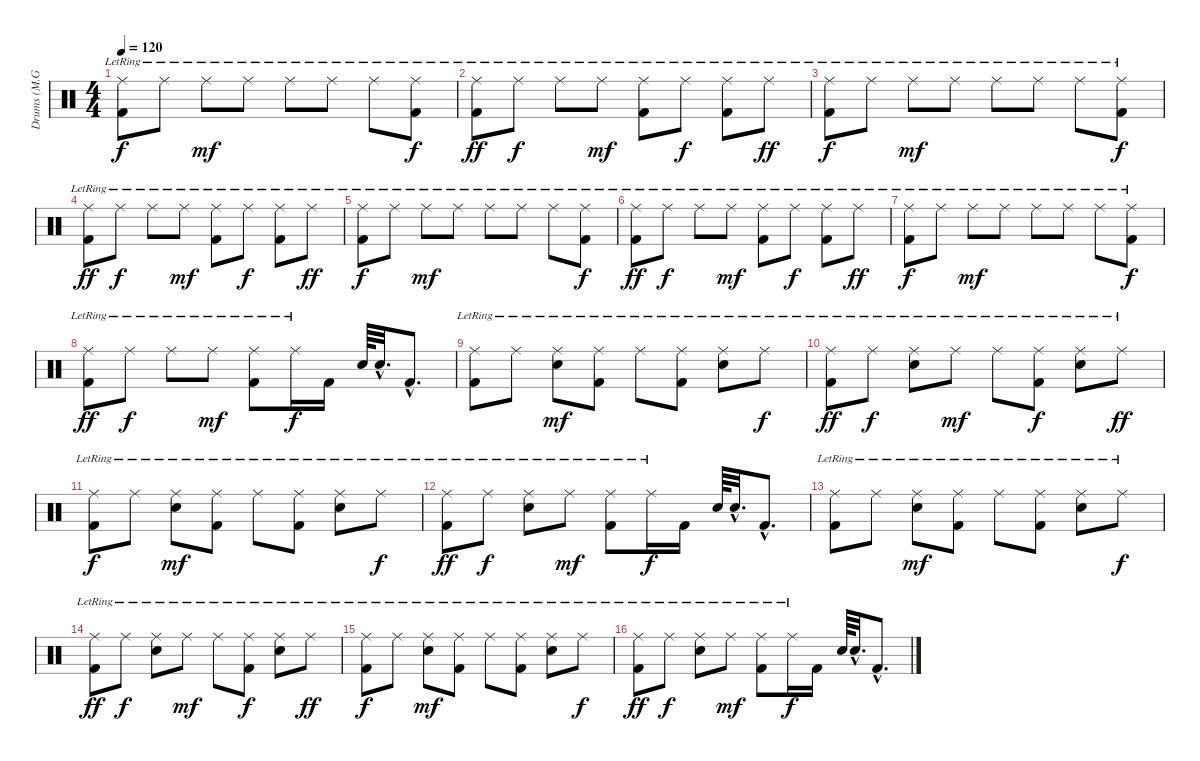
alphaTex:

\track ("Drums (M.Grosskopf)" "Drums (M.G") {instrument percussion}
\staff {score}
\articulation defaults
\ts (4 4)
\tempo 120
\clef neutral
\ks c
("Ride (middle)"{lr} "Kick (hit) 2").8{dy f} "Ride (middle)"{lr}.8 "Ride (middle)"{lr}.8{dy mf} "Ride (middle)"{lr}.8 "Ride (middle)"{lr}.8 "Ride (middle)"{lr}.8 "Ride (middle)"{lr}.8 ("Ride (middle)"{lr} "Kick (hit) 2").8{dy f} |
("Ride (middle)"{lr} "Kick (hit) 2").8{dy ff} "Ride (middle)"{lr}.8{dy f} "Ride (middle)"{lr}.8 "Ride (middle)"{lr}.8{dy mf} ("Ride (middle)"{lr} "Kick (hit) 2").8 "Ride (middle)"{lr}.8{dy f} ("Ride (middle)"{lr} "Kick (hit) 2").8 "Ride (middle)"{lr}.8{dy ff} |
("Ride (middle)"{lr} "Kick (hit) 2").8{dy f} "Ride (middle)"{lr}.8 "Ride (middle)"{lr}.8{dy mf} "Ride (middle)"{lr}.8 "Ride (middle)"{lr}.8 "Ride (middle)"{lr}.8 "Ride (middle)"{lr}.8 ("Ride (middle)"{lr} "Kick (hit) 2").8{dy f} |
("Ride (middle)"{lr} "Kick (hit) 2").8{dy ff} "Ride (middle)"{lr}.8{dy f} "Ride (middle)"{lr}.8 "Ride (middle)"{lr}.8{dy mf} ("Ride (middle)"{lr} "Kick (hit) 2").8 "Ride (middle)"{lr}.8{dy f} ("Ride (middle)"{lr} "Kick (hit) 2").8 "Ride (middle)"{lr}.8{dy ff} |
("Ride (middle)"{lr} "Kick (hit) 2").8{dy f} "Ride (middle)"{lr}.8 "Ride (middle)"{lr}.8{dy mf} "Ride (middle)"{lr}.8 "Ride (middle)"{lr}.8 "Ride (middle)"{lr}.8 "Ride (middle)"{lr}.8 ("Ride (middle)"{lr} "Kick (hit) 2").8{dy f} |
("Ride (middle)"{lr} "Kick (hit) 2").8{dy ff} "Ride (middle)"{lr}.8{dy f} "Ride (middle)"{lr}.8 "Ride (middle)"{lr}.8{dy mf} ("Ride (middle)"{lr} "Kick (hit) 2").8 "Ride (middle)"{lr}.8{dy f} ("Ride (middle)"{lr} "Kick (hit) 2").8 "Ride (middle)"{lr}.8{dy ff} |
("Ride (middle)"{lr} "Kick (hit) 2").8{dy f} "Ride (middle)"{lr}.8 "Ride (middle)"{lr}.8{dy mf} "Ride (middle)"{lr}.8 "Ride (middle)"{lr}.8 "Ride (middle)"{lr}.8 "Ride (middle)"{lr}.8 ("Ride (middle)"{lr} "Kick (hit) 2").8{dy f} |
("Ride (middle)"{lr} "Kick (hit) 2").8{dy ff} "Ride (middle)"{lr}.8{dy f} "Ride (middle)"{lr}.8 "Ride (middle)"{lr}.8{dy mf} ("Ride (middle)"{lr} "Kick (hit) 2").8 "Ride (middle)"{lr}.16{dy f} "Kick (hit) 2".16 "Electric Snare (hit)".64 "Electric Snare (hit)"{hac}.32{d} "Kick (hit) 2"{hac}.8{d} |
("Ride (middle)"{lr} "Kick (hit) 2").8 "Ride (middle)"{lr}.8 ("Ride (middle)"{lr} "Electric Snare (hit)").8{dy mf} ("Ride (middle)"{lr} "Kick (hit) 2").8 "Ride (middle)"{lr}.8 ("Ride (middle)"{lr} "Kick (hit) 2").8 ("Ride (middle)"{lr} "Electric Snare (hit)").8 "Ride (middle)"{lr}.8{dy f} |
("Ride (middle)"{lr} "Kick (hit) 2").8{dy ff} "Ride (middle)"{lr}.8{dy f} ("Ride (middle)"{lr} "Electric Snare (hit)").8 "Ride (middle)"{lr}.8{dy mf} "Ride (middle)"{lr}.8 ("Ride (middle)"{lr} "Kick (hit) 2").8{dy f} ("Ride (middle)"{lr} "Electric Snare (hit)").8 "Ride (middle)"{lr}.8{dy ff} |
("Ride (middle)"{lr} "Kick (hit) 2").8{dy f} "Ride (middle)"{lr}.8 ("Ride (middle)"{lr} "Electric Snare (hit)").8{dy mf} ("Ride (middle)"{lr} "Kick (hit) 2").8 "Ride (middle)"{lr}.8 ("Ride (middle)"{lr} "Kick (hit) 2").8 ("Ride (middle)"{lr} "Electric Snare (hit)").8 "Ride (middle)"{lr}.8{dy f} |
("Ride (middle)"{lr} "Kick (hit) 2").8{dy ff} "Ride (middle)"{lr}.8{dy f} ("Ride (middle)"{lr} "Electric Snare (hit)").8 "Ride (middle)"{lr}.8{dy mf} ("Ride (middle)"{lr} "Kick (hit) 2").8 "Ride (middle)"{lr}.16{dy f} "Kick (hit) 2".16 "Electric Snare (hit)".64 "Electric Snare (hit)"{hac}.32{d} "Kick (hit) 2"{hac}.8{d} |
("Ride (middle)"{lr} "Kick (hit) 2").8 "Ride (middle)"{lr}.8 ("Ride (middle)"{lr} "Electric Snare (hit)").8{dy mf} ("Ride (middle)"{lr} "Kick (hit) 2").8 "Ride (middle)"{lr}.8 ("Ride (middle)"{lr} "Kick (hit) 2").8 ("Ride (middle)"{lr} "Electric Snare (hit)").8 "Ride (middle)"{lr}.8{dy f} |
("Ride (middle)"{lr} "Kick (hit) 2").8{dy ff} "Ride (middle)"{lr}.8{dy f} ("Ride (middle)"{lr} "Electric Snare (hit)").8 "Ride (middle)"{lr}.8{dy mf} "Ride (middle)"{lr}.8 ("Ride (middle)"{lr} "Kick (hit) 2").8{dy f} ("Ride (middle)"{lr} "Electric Snare (hit)").8 "Ride (middle)"{lr}.8{dy ff} |
("Ride (middle)"{lr} "Kick (hit) 2").8{dy f} "Ride (middle)"{lr}.8 ("Ride (middle)"{lr} "Electric Snare (hit)").8{dy mf} ("Ride (middle)"{lr} "Kick (hit) 2").8 "Ride (middle)"{lr}.8 ("Ride (middle)"{lr} "Kick (hit) 2").8 ("Ride (middle)"{lr} "Electric Snare (hit)").8 "Ride (middle)"{lr}.8{dy f} |
("Ride (middle)"{lr} "Kick (hit) 2").8{dy ff} "Ride (middle)"{lr}.8{dy f} ("Ride (middle)"{lr} "Electric Snare (hit)").8 "Ride (middle)"{lr}.8{dy mf} ("Ride (middle)"{lr} "Kick (hit) 2").8 "Ride (middle)"{lr}.16{dy f} "Kick (hit) 2".16 "Electric Snare (hit)".64 "Electric Snare (hit)"{hac}.32{d} "Kick (hit) 2"{hac}.8{d}
